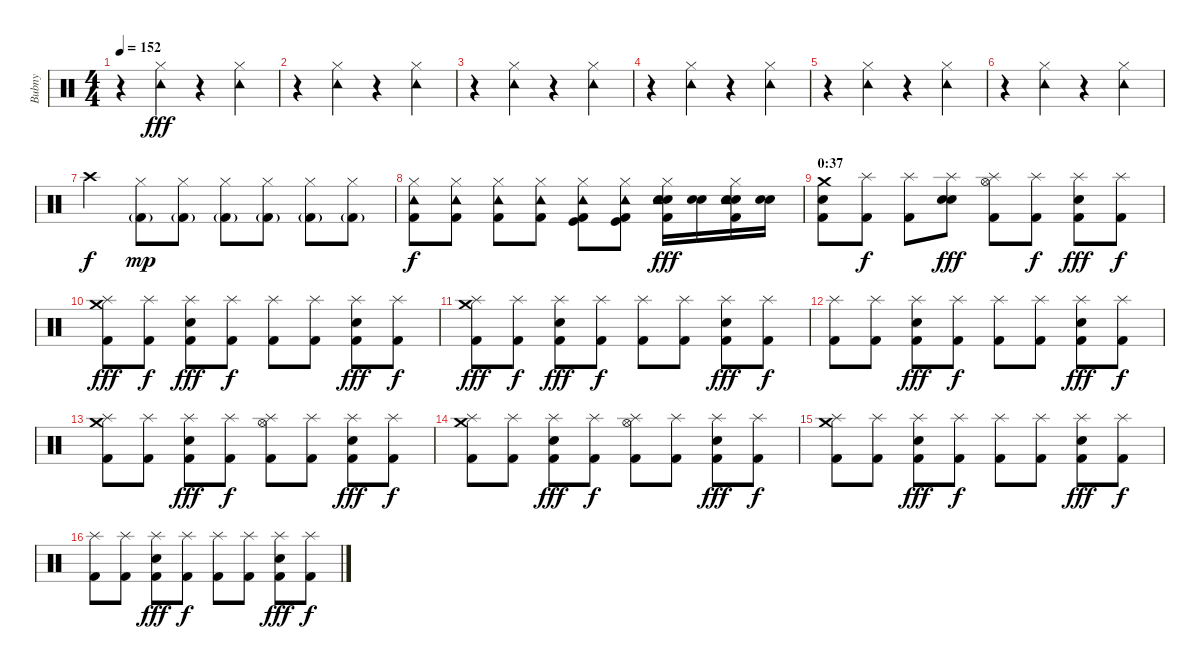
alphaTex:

\track ("Bubny" "Bubny") {instrument percussion}
\staff {score}
\articulation defaults
\ts (4 4)
\tempo 152
\clef neutral
\ks c
r.4{dy fff} ("Hi-Hat (closed)" "Tambourine (hit)").4 r.4 ("Hi-Hat (closed)" "Tambourine (hit)").4 |
r.4 ("Hi-Hat (closed)" "Tambourine (hit)").4 r.4 ("Hi-Hat (closed)" "Tambourine (hit)").4 |
r.4 ("Hi-Hat (closed)" "Tambourine (hit)").4 r.4 ("Hi-Hat (closed)" "Tambourine (hit)").4 |
r.4 ("Hi-Hat (closed)" "Tambourine (hit)").4 r.4 ("Hi-Hat (closed)" "Tambourine (hit)").4 |
r.4 ("Hi-Hat (closed)" "Tambourine (hit)").4 r.4 ("Hi-Hat (closed)" "Tambourine (hit)").4 |
r.4 ("Hi-Hat (closed)" "Tambourine (hit)").4 r.4 ("Hi-Hat (closed)" "Tambourine (hit)").4 |
"Crash high (hit)".4{dy f} ("Kick (hit) 2"{g} "Hi-Hat (closed)").8{dy mp} ("Kick (hit) 2"{g} "Hi-Hat (closed)").8 ("Kick (hit) 2"{g} "Hi-Hat (closed)").8 ("Kick (hit) 2"{g} "Hi-Hat (closed)").8 ("Kick (hit) 2"{g} "Hi-Hat (closed)").8 ("Kick (hit) 2"{g} "Hi-Hat (closed)").8 |
("Kick (hit) 2" "Hi-Hat (closed)" "Tambourine (hit)").8{dy f} ("Kick (hit) 2" "Hi-Hat (closed)" "Tambourine (hit)").8 ("Kick (hit) 2" "Hi-Hat (closed)" "Tambourine (hit)").8 ("Kick (hit) 2" "Hi-Hat (closed)" "Tambourine (hit)").8 ("Kick (hit)" "Kick (hit) 2" "Hi-Hat (closed)" "Tambourine (hit)").8 ("Kick (hit)" "Kick (hit) 2" "Hi-Hat (closed)" "Tambourine (hit)").8 ("Snare (hit) 2" "Electric Snare (hit)" "Kick (hit) 2" "Hi-Hat (closed)" "Tambourine (hit)").16{dy fff} ("Snare (hit) 2" "Electric Snare (hit)").16 ("Snare (hit) 2" "Electric Snare (hit)" "Kick (hit) 2" "Hi-Hat (closed)" "Tambourine (hit)").16 ("Snare (hit) 2" "Electric Snare (hit)").16 |
\section ("" "0:37")
("Kick (hit) 2" "Electric Snare (hit)" "Crash medium (hit)").8 ("Splash (hit)" "Kick (hit) 2").8{dy f} ("Splash (hit)" "Kick (hit) 2").8 ("Splash (hit)" "Electric Snare (hit)" "Snare (hit) 2").8{dy fff} ("Splash (hit)" "Kick (hit) 2" "Hi-Hat (open)").8 ("Splash (hit)" "Kick (hit) 2").8{dy f} ("Splash (hit)" "Kick (hit) 2" "Snare (hit) 2").8{dy fff} ("Splash (hit)" "Kick (hit) 2").8{dy f} |
("Splash (hit)" "Kick (hit) 2" "Crash medium (hit)").8{dy fff} ("Splash (hit)" "Kick (hit) 2").8{dy f} ("Splash (hit)" "Kick (hit) 2" "Snare (hit) 2").8{dy fff} ("Splash (hit)" "Kick (hit) 2").8{dy f} ("Splash (hit)" "Kick (hit) 2").8 ("Splash (hit)" "Kick (hit) 2").8 ("Splash (hit)" "Kick (hit) 2" "Snare (hit) 2").8{dy fff} ("Splash (hit)" "Kick (hit) 2").8{dy f} |
("Splash (hit)" "Kick (hit) 2" "Crash medium (hit)").8{dy fff} ("Splash (hit)" "Kick (hit) 2").8{dy f} ("Splash (hit)" "Kick (hit) 2" "Snare (hit) 2").8{dy fff} ("Splash (hit)" "Kick (hit) 2").8{dy f} ("Splash (hit)" "Kick (hit) 2").8 ("Splash (hit)" "Kick (hit) 2").8 ("Splash (hit)" "Kick (hit) 2" "Snare (hit) 2").8{dy fff} ("Splash (hit)" "Kick (hit) 2").8{dy f} |
("Splash (hit)" "Kick (hit) 2").8 ("Splash (hit)" "Kick (hit) 2").8 ("Splash (hit)" "Kick (hit) 2" "Snare (hit) 2").8{dy fff} ("Splash (hit)" "Kick (hit) 2").8{dy f} ("Splash (hit)" "Kick (hit) 2").8 ("Splash (hit)" "Kick (hit) 2").8 ("Splash (hit)" "Kick (hit) 2" "Snare (hit) 2").8{dy fff} ("Splash (hit)" "Kick (hit) 2").8{dy f} |
("Splash (hit)" "Kick (hit) 2" "Crash medium (hit)").8 ("Splash (hit)" "Kick (hit) 2").8 ("Splash (hit)" "Kick (hit) 2" "Snare (hit) 2").8{dy fff} ("Splash (hit)" "Kick (hit) 2").8{dy f} ("Splash (hit)" "Kick (hit) 2" "Hi-Hat (open)").8 ("Splash (hit)" "Kick (hit) 2").8 ("Splash (hit)" "Kick (hit) 2" "Snare (hit) 2").8{dy fff} ("Splash (hit)" "Kick (hit) 2").8{dy f} |
("Splash (hit)" "Kick (hit) 2" "Crash medium (hit)").8 ("Splash (hit)" "Kick (hit) 2").8 ("Splash (hit)" "Kick (hit) 2" "Snare (hit) 2").8{dy fff} ("Splash (hit)" "Kick (hit) 2").8{dy f} ("Splash (hit)" "Kick (hit) 2" "Hi-Hat (open)").8 ("Splash (hit)" "Kick (hit) 2").8 ("Splash (hit)" "Kick (hit) 2" "Snare (hit) 2").8{dy fff} ("Splash (hit)" "Kick (hit) 2").8{dy f} |
("Splash (hit)" "Kick (hit) 2" "Crash medium (hit)").8 ("Splash (hit)" "Kick (hit) 2").8 ("Splash (hit)" "Kick (hit) 2" "Snare (hit) 2").8{dy fff} ("Splash (hit)" "Kick (hit) 2").8{dy f} ("Splash (hit)" "Kick (hit) 2").8 ("Splash (hit)" "Kick (hit) 2").8 ("Splash (hit)" "Kick (hit) 2" "Snare (hit) 2").8{dy fff} ("Splash (hit)" "Kick (hit) 2").8{dy f} |
("Splash (hit)" "Kick (hit) 2").8 ("Splash (hit)" "Kick (hit) 2").8 ("Splash (hit)" "Kick (hit) 2" "Snare (hit) 2").8{dy fff} ("Splash (hit)" "Kick (hit) 2").8{dy f} ("Splash (hit)" "Kick (hit) 2").8 ("Splash (hit)" "Kick (hit) 2").8 ("Splash (hit)" "Kick (hit) 2" "Snare (hit) 2").8{dy fff} ("Splash (hit)" "Kick (hit) 2").8{dy f}
